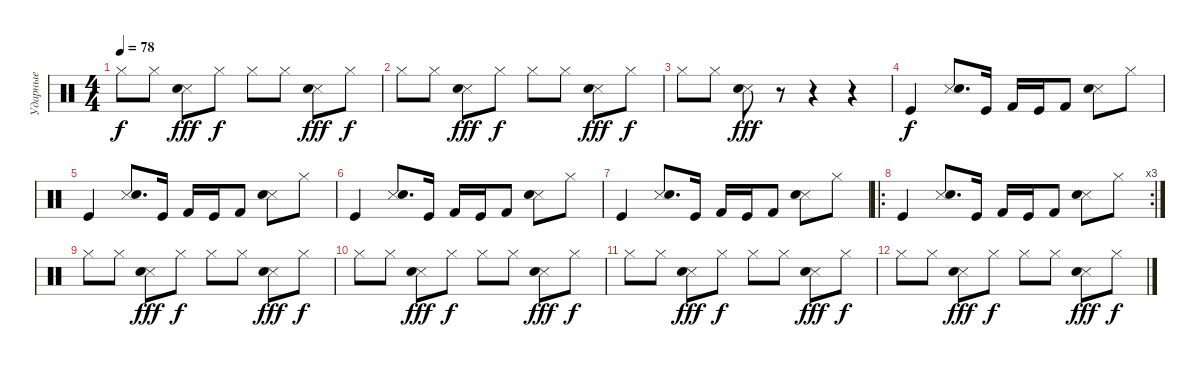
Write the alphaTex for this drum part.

\track ("Ударные" "Ударные") {instrument percussion}
\staff {score}
\articulation defaults
\ts (4 4)
\tempo 78
\clef neutral
\ks c "Hi-Hat (closed)".8{dy f} "Hi-Hat (closed)".8
("Snare (side stick) 3" "Electric Snare (hit)").8{dy fff} "Hi-Hat (closed)".8{dy f} "Hi-Hat (closed)".8 "Hi-Hat (closed)".8 ("Snare (side stick) 3" "Electric Snare (hit)").8{dy fff} "Hi-Hat (closed)".8{dy f} |
"Hi-Hat (closed)".8 "Hi-Hat (closed)".8 ("Snare (side stick) 3" "Electric Snare (hit)").8{dy fff} "Hi-Hat (closed)".8{dy f} "Hi-Hat (closed)".8 "Hi-Hat (closed)".8 ("Snare (side stick) 3" "Electric Snare (hit)").8{dy fff} "Hi-Hat (closed)".8{dy f} |
"Hi-Hat (closed)".8 "Hi-Hat (closed)".8 ("Snare (side stick) 3" "Electric Snare (hit)").8{dy fff} r.8 r.4 r.4 |
"Kick (hit)".4{dy f} ("Snare (side stick) 3" "Electric Snare (hit)").8{d} "Kick (hit)".16 "Kick (hit) 2".16 "Kick (hit)".16 "Kick (hit) 2".8 ("Snare (side stick) 3" "Electric Snare (hit)").8 "Hi-Hat (closed)".8 |
"Kick (hit)".4 ("Snare (side stick) 3" "Electric Snare (hit)").8{d} "Kick (hit)".16 "Kick (hit) 2".16 "Kick (hit)".16 "Kick (hit) 2".8 ("Snare (side stick) 3" "Electric Snare (hit)").8 "Hi-Hat (closed)".8 |
"Kick (hit)".4 ("Snare (side stick) 3" "Electric Snare (hit)").8{d} "Kick (hit)".16 "Kick (hit) 2".16 "Kick (hit)".16 "Kick (hit) 2".8 ("Snare (side stick) 3" "Electric Snare (hit)").8 "Hi-Hat (closed)".8 |
"Kick (hit)".4 ("Snare (side stick) 3" "Electric Snare (hit)").8{d} "Kick (hit)".16 "Kick (hit) 2".16 "Kick (hit)".16 "Kick (hit) 2".8 ("Snare (side stick) 3" "Electric Snare (hit)").8 "Hi-Hat (closed)".8 |
\ro
\rc 3 "Kick (hit)".4
("Snare (side stick) 3" "Electric Snare (hit)").8{d} "Kick (hit)".16 "Kick (hit) 2".16 "Kick (hit)".16 "Kick (hit) 2".8 ("Snare (side stick) 3" "Electric Snare (hit)").8 "Hi-Hat (closed)".8 |
"Hi-Hat (closed)".8 "Hi-Hat (closed)".8 ("Snare (side stick) 3" "Electric Snare (hit)").8{dy fff} "Hi-Hat (closed)".8{dy f} "Hi-Hat (closed)".8 "Hi-Hat (closed)".8 ("Snare (side stick) 3" "Electric Snare (hit)").8{dy fff} "Hi-Hat (closed)".8{dy f} |
"Hi-Hat (closed)".8 "Hi-Hat (closed)".8 ("Snare (side stick) 3" "Electric Snare (hit)").8{dy fff} "Hi-Hat (closed)".8{dy f} "Hi-Hat (closed)".8 "Hi-Hat (closed)".8 ("Snare (side stick) 3" "Electric Snare (hit)").8{dy fff} "Hi-Hat (closed)".8{dy f} |
"Hi-Hat (closed)".8 "Hi-Hat (closed)".8 ("Snare (side stick) 3" "Electric Snare (hit)").8{dy fff} "Hi-Hat (closed)".8{dy f} "Hi-Hat (closed)".8 "Hi-Hat (closed)".8 ("Snare (side stick) 3" "Electric Snare (hit)").8{dy fff} "Hi-Hat (closed)".8{dy f} |
"Hi-Hat (closed)".8 "Hi-Hat (closed)".8 ("Snare (side stick) 3" "Electric Snare (hit)").8{dy fff} "Hi-Hat (closed)".8{dy f} "Hi-Hat (closed)".8 "Hi-Hat (closed)".8 ("Snare (side stick) 3" "Electric Snare (hit)").8{dy fff} "Hi-Hat (closed)".8{dy f}
